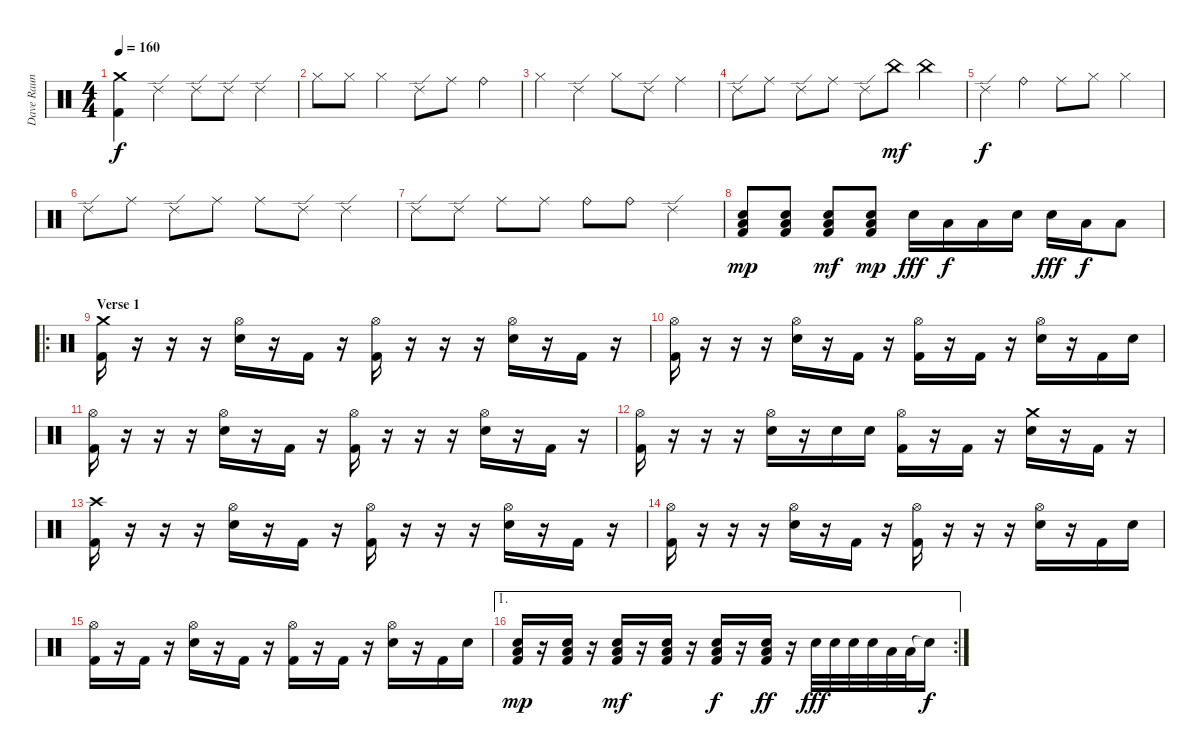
\track ("Dave Raun" "Dave Raun") {instrument percussion}
\staff {score}
\articulation defaults
\ts (4 4)
\tempo 160
\clef neutral
\ks c
("Crash medium (hit)" "Kick (hit) 2").4{dy f} "Ride (edge) 2".4 "Ride (edge) 2".8 "Ride (edge) 2".8 "Ride (edge) 2".4 |
"Hi-Hat (closed)".8 "Hi-Hat (closed)".8 "Hi-Hat (closed)".4 "Ride (edge) 2".8 "Ride (middle)".8 "Ride (bell)".4 |
"Hi-Hat (closed)".4 "Ride (edge) 2".4 "Hi-Hat (closed)".8 "Ride (edge) 2".8 "Ride (middle)".4 |
"Ride (edge) 2".8 "Ride (middle)".8 "Ride (edge) 2".8 "Ride (middle)".8 "Ride (edge) 2".8 "China (hit)".8{dy mf} "China (hit)".4 |
"Ride (edge) 2".4{dy f} "Ride (bell)".4 "Ride (middle)".8 "Hi-Hat (closed)".8 "Hi-Hat (closed)".4 |
"Ride (edge) 2".8 "Ride (middle)".8 "Ride (edge) 2".8 "Ride (middle)".8 "Ride (middle)".8 "Ride (edge) 2".8 "Ride (edge) 2".4 |
"Ride (edge) 2".8 "Ride (edge) 2".8 "Ride (middle)".8 "Ride (middle)".8 "Ride (bell)".8 "Ride (bell)".8 "Ride (edge) 2".4 |
("Low Floor Tom (hit)" "Snare (hit) 2" "Kick (hit) 2").8{dy mp} ("Low Floor Tom (hit)" "Snare (hit) 2" "Kick (hit) 2").8 ("Low Floor Tom (hit)" "Snare (hit) 2" "Kick (hit) 2").8{dy mf} ("Low Floor Tom (hit)" "Snare (hit) 2" "Kick (hit) 2").8{dy mp} "Snare (hit) 2".16{dy fff} "Low Tom (hit)".16{dy f} "Low Tom (hit)".16 "Snare (hit) 2".16 "Snare (hit) 2".16{dy fff} "Low Tom (hit)".16{dy f} "Low Floor Tom (hit)".8 |
\ro
\section ("" "Verse 1")
("Crash medium (hit)" "Kick (hit) 2").16 r.16 r.16 r.16 ("Hi-Hat (open)" "Snare (hit) 2").16 r.16 "Kick (hit) 2".16 r.16 ("Hi-Hat (open)" "Kick (hit) 2").16 r.16 r.16 r.16 ("Hi-Hat (open)" "Snare (hit) 2").16 r.16 "Kick (hit) 2".16 r.16 |
("Hi-Hat (open)" "Kick (hit) 2").16 r.16 r.16 r.16 ("Hi-Hat (open)" "Snare (hit) 2").16 r.16 "Kick (hit) 2".16 r.16 ("Hi-Hat (open)" "Kick (hit) 2").16 r.16 "Kick (hit) 2".16 r.16 ("Hi-Hat (open)" "Snare (hit) 2").16 r.16 "Kick (hit) 2".16 "Snare (hit) 2".16 |
("Hi-Hat (open)" "Kick (hit) 2").16 r.16 r.16 r.16 ("Hi-Hat (open)" "Snare (hit) 2").16 r.16 "Kick (hit) 2".16 r.16 ("Hi-Hat (open)" "Kick (hit) 2").16 r.16 r.16 r.16 ("Hi-Hat (open)" "Snare (hit) 2").16 r.16 "Kick (hit) 2".16 r.16 |
("Hi-Hat (open)" "Kick (hit) 2").16 r.16 r.16 r.16 ("Hi-Hat (open)" "Snare (hit) 2").16 r.16 "Snare (hit) 2".16 "Snare (hit) 2".16 ("Hi-Hat (open)" "Kick (hit) 2").16 r.16 "Kick (hit) 2".16 r.16 ("Crash medium (hit)" "Snare (hit) 2").16 r.16 "Kick (hit) 2".16 r.16 |
("Crash high (hit)" "Kick (hit) 2").16 r.16 r.16 r.16 ("Hi-Hat (open)" "Snare (hit) 2").16 r.16 "Kick (hit) 2".16 r.16 ("Hi-Hat (open)" "Kick (hit) 2").16 r.16 r.16 r.16 ("Hi-Hat (open)" "Snare (hit) 2").16 r.16 "Kick (hit) 2".16 r.16 |
("Hi-Hat (open)" "Kick (hit) 2").16 r.16 r.16 r.16 ("Hi-Hat (open)" "Snare (hit) 2").16 r.16 "Kick (hit) 2".16 r.16 ("Hi-Hat (open)" "Kick (hit) 2").16 r.16 r.16 r.16 ("Hi-Hat (open)" "Snare (hit) 2").16 r.16 "Kick (hit) 2".16 "Snare (hit) 2".16 |
("Hi-Hat (open)" "Kick (hit) 2").16 r.16 "Kick (hit) 2".16 r.16 ("Hi-Hat (open)" "Snare (hit) 2").16 r.16 "Kick (hit) 2".16 r.16 ("Hi-Hat (open)" "Kick (hit) 2").16 r.16 "Kick (hit) 2".16 r.16 ("Hi-Hat (open)" "Snare (hit) 2").16 r.16 "Kick (hit) 2".16 "Snare (hit) 2".16 |
\ae 1
\rc 2
("Low Floor Tom (hit)" "Snare (hit) 2" "Kick (hit) 2").16{dy mp} r.16 ("Low Floor Tom (hit)" "Snare (hit) 2" "Kick (hit) 2").16 r.16 ("Low Floor Tom (hit)" "Snare (hit) 2" "Kick (hit) 2").16{dy mf} r.16 ("Low Floor Tom (hit)" "Snare (hit) 2" "Kick (hit) 2").16 r.16 ("Low Floor Tom (hit)" "Snare (hit) 2" "Kick (hit) 2").16{dy f} r.16 ("Low Floor Tom (hit)" "Snare (hit) 2" "Kick (hit) 2").16{dy ff} r.16 "Snare (hit) 2".32{dy fff} "Snare (hit) 2".32 "Snare (hit) 2".32 "Snare (hit) 2".32 "Low Tom (hit)".32 "Low Tom (hit)".32 "Snare (hit)"{t}.16{dy f}
